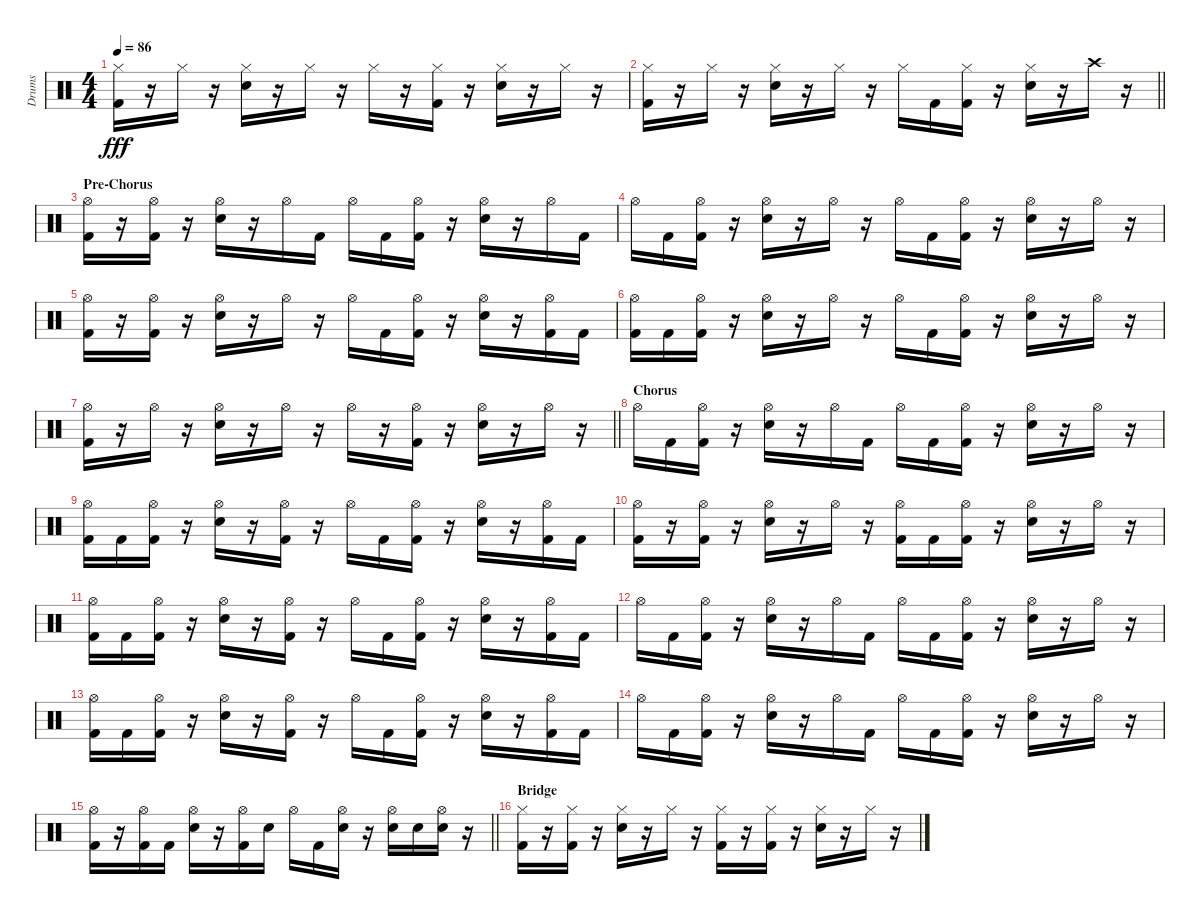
\track ("Drums" "Drums") {instrument percussion}
\staff {score}
\articulation defaults
\ts (4 4)
\tempo 86
\clef neutral
\ks c
("Hi-Hat (closed)" "Kick (hit) 2").16{dy fff} r.16 "Hi-Hat (closed)".16 r.16 ("Hi-Hat (closed)" "Electric Snare (hit)").16 r.16 "Hi-Hat (closed)".16 r.16 "Hi-Hat (closed)".16 r.16 ("Hi-Hat (closed)" "Kick (hit) 2").16 r.16 ("Hi-Hat (closed)" "Electric Snare (hit)").16 r.16 "Hi-Hat (closed)".16 r.16 |
\barLineRight lightlight
("Hi-Hat (closed)" "Kick (hit) 2").16 r.16 "Hi-Hat (closed)".16 r.16 ("Hi-Hat (closed)" "Electric Snare (hit)").16 r.16 "Hi-Hat (closed)".16 r.16 "Hi-Hat (closed)".16 "Kick (hit) 2".16 ("Hi-Hat (closed)" "Kick (hit) 2").16 r.16 ("Hi-Hat (closed)" "Electric Snare (hit)").16 r.16 "Crash high (hit)".16 r.16 |
\section ("" "Pre-Chorus")
("Hi-Hat (open)" "Kick (hit) 2").16 r.16 ("Hi-Hat (open)" "Kick (hit) 2").16 r.16 ("Hi-Hat (open)" "Electric Snare (hit)").16 r.16 "Hi-Hat (open)".16 "Kick (hit) 2".16 "Hi-Hat (open)".16 "Kick (hit) 2".16 ("Hi-Hat (open)" "Kick (hit) 2").16 r.16 ("Hi-Hat (open)" "Electric Snare (hit)").16 r.16 "Hi-Hat (open)".16 "Kick (hit) 2".16 |
"Hi-Hat (open)".16 "Kick (hit) 2".16 ("Hi-Hat (open)" "Kick (hit) 2").16 r.16 ("Hi-Hat (open)" "Electric Snare (hit)").16 r.16 "Hi-Hat (open)".16 r.16 "Hi-Hat (open)".16 "Kick (hit) 2".16 ("Hi-Hat (open)" "Kick (hit) 2").16 r.16 ("Hi-Hat (open)" "Electric Snare (hit)").16 r.16 "Hi-Hat (open)".16 r.16 |
("Hi-Hat (open)" "Kick (hit) 2").16 r.16 ("Hi-Hat (open)" "Kick (hit) 2").16 r.16 ("Hi-Hat (open)" "Electric Snare (hit)").16 r.16 "Hi-Hat (open)".16 r.16 "Hi-Hat (open)".16 "Kick (hit) 2".16 ("Hi-Hat (open)" "Kick (hit) 2").16 r.16 ("Hi-Hat (open)" "Electric Snare (hit)").16 r.16 ("Hi-Hat (open)" "Kick (hit) 2").16 "Kick (hit) 2".16 |
("Hi-Hat (open)" "Kick (hit) 2").16 "Kick (hit) 2".16 ("Hi-Hat (open)" "Kick (hit) 2").16 r.16 ("Hi-Hat (open)" "Electric Snare (hit)").16 r.16 "Hi-Hat (open)".16 r.16 "Hi-Hat (open)".16 "Kick (hit) 2".16 ("Hi-Hat (open)" "Kick (hit) 2").16 r.16 ("Hi-Hat (open)" "Electric Snare (hit)").16 r.16 "Hi-Hat (open)".16 r.16 |
\barLineRight lightlight
("Hi-Hat (open)" "Kick (hit) 2").16 r.16 "Hi-Hat (open)".16 r.16 ("Hi-Hat (open)" "Electric Snare (hit)").16 r.16 "Hi-Hat (open)".16 r.16 "Hi-Hat (open)".16 r.16 ("Hi-Hat (open)" "Kick (hit) 2").16 r.16 ("Hi-Hat (open)" "Electric Snare (hit)").16 r.16 "Hi-Hat (open)".16 r.16 |
\section ("" "Chorus")
"Hi-Hat (open)".16 "Kick (hit) 2".16 ("Hi-Hat (open)" "Kick (hit) 2").16 r.16 ("Hi-Hat (open)" "Electric Snare (hit)").16 r.16 "Hi-Hat (open)".16 "Kick (hit) 2".16 "Hi-Hat (open)".16 "Kick (hit) 2".16 ("Hi-Hat (open)" "Kick (hit) 2").16 r.16 ("Hi-Hat (open)" "Electric Snare (hit)").16 r.16 "Hi-Hat (open)".16 r.16 |
("Hi-Hat (open)" "Kick (hit) 2").16 "Kick (hit) 2".16 ("Hi-Hat (open)" "Kick (hit) 2").16 r.16 ("Hi-Hat (open)" "Electric Snare (hit)").16 r.16 ("Hi-Hat (open)" "Kick (hit) 2").16 r.16 "Hi-Hat (open)".16 "Kick (hit) 2".16 ("Hi-Hat (open)" "Kick (hit) 2").16 r.16 ("Hi-Hat (open)" "Electric Snare (hit)").16 r.16 ("Hi-Hat (open)" "Kick (hit) 2").16 "Kick (hit) 2".16 |
("Hi-Hat (open)" "Kick (hit) 2").16 r.16 ("Hi-Hat (open)" "Kick (hit) 2").16 r.16 ("Hi-Hat (open)" "Electric Snare (hit)").16 r.16 "Hi-Hat (open)".16 r.16 ("Hi-Hat (open)" "Kick (hit) 2").16 "Kick (hit) 2".16 ("Hi-Hat (open)" "Kick (hit) 2").16 r.16 ("Hi-Hat (open)" "Electric Snare (hit)").16 r.16 "Hi-Hat (open)".16 r.16 |
("Hi-Hat (open)" "Kick (hit) 2").16 "Kick (hit) 2".16 ("Hi-Hat (open)" "Kick (hit) 2").16 r.16 ("Hi-Hat (open)" "Electric Snare (hit)").16 r.16 ("Hi-Hat (open)" "Kick (hit) 2").16 r.16 "Hi-Hat (open)".16 "Kick (hit) 2".16 ("Hi-Hat (open)" "Kick (hit) 2").16 r.16 ("Hi-Hat (open)" "Electric Snare (hit)").16 r.16 ("Hi-Hat (open)" "Kick (hit) 2").16 "Kick (hit) 2".16 |
"Hi-Hat (open)".16 "Kick (hit) 2".16 ("Hi-Hat (open)" "Kick (hit) 2").16 r.16 ("Hi-Hat (open)" "Electric Snare (hit)").16 r.16 "Hi-Hat (open)".16 "Kick (hit) 2".16 "Hi-Hat (open)".16 "Kick (hit) 2".16 ("Hi-Hat (open)" "Kick (hit) 2").16 r.16 ("Hi-Hat (open)" "Electric Snare (hit)").16 r.16 "Hi-Hat (open)".16 r.16 |
("Hi-Hat (open)" "Kick (hit) 2").16 "Kick (hit) 2".16 ("Hi-Hat (open)" "Kick (hit) 2").16 r.16 ("Hi-Hat (open)" "Electric Snare (hit)").16 r.16 ("Hi-Hat (open)" "Kick (hit) 2").16 r.16 "Hi-Hat (open)".16 "Kick (hit) 2".16 ("Hi-Hat (open)" "Kick (hit) 2").16 r.16 ("Hi-Hat (open)" "Electric Snare (hit)").16 r.16 ("Hi-Hat (open)" "Kick (hit) 2").16 "Kick (hit) 2".16 |
"Hi-Hat (open)".16 "Kick (hit) 2".16 ("Hi-Hat (open)" "Kick (hit) 2").16 r.16 ("Hi-Hat (open)" "Electric Snare (hit)").16 r.16 "Hi-Hat (open)".16 "Kick (hit) 2".16 "Hi-Hat (open)".16 "Kick (hit) 2".16 ("Hi-Hat (open)" "Kick (hit) 2").16 r.16 ("Hi-Hat (open)" "Electric Snare (hit)").16 r.16 "Hi-Hat (open)".16 r.16 |
\barLineRight lightlight
("Hi-Hat (open)" "Kick (hit) 2").16 r.16 ("Hi-Hat (open)" "Kick (hit) 2").16 "Kick (hit) 2".16 ("Hi-Hat (open)" "Electric Snare (hit)").16 r.16 ("Hi-Hat (open)" "Kick (hit) 2").16 "Electric Snare (hit)".16 "Hi-Hat (open)".16 "Kick (hit) 2".16 ("Hi-Hat (open)" "Electric Snare (hit)").16 r.16 ("Hi-Hat (open)" "Electric Snare (hit)").16 "Electric Snare (hit)".16 ("Hi-Hat (open)" "Electric Snare (hit)").16 r.16 |
\section ("" "Bridge")
("Hi-Hat (closed)" "Kick (hit) 2").16 r.16 ("Hi-Hat (closed)" "Kick (hit) 2").16 r.16 ("Hi-Hat (closed)" "Electric Snare (hit)").16 r.16 "Hi-Hat (closed)".16 r.16 ("Hi-Hat (closed)" "Kick (hit) 2").16 r.16 ("Hi-Hat (closed)" "Kick (hit) 2").16 r.16 ("Hi-Hat (closed)" "Electric Snare (hit)").16 r.16 "Hi-Hat (closed)".16 r.16
